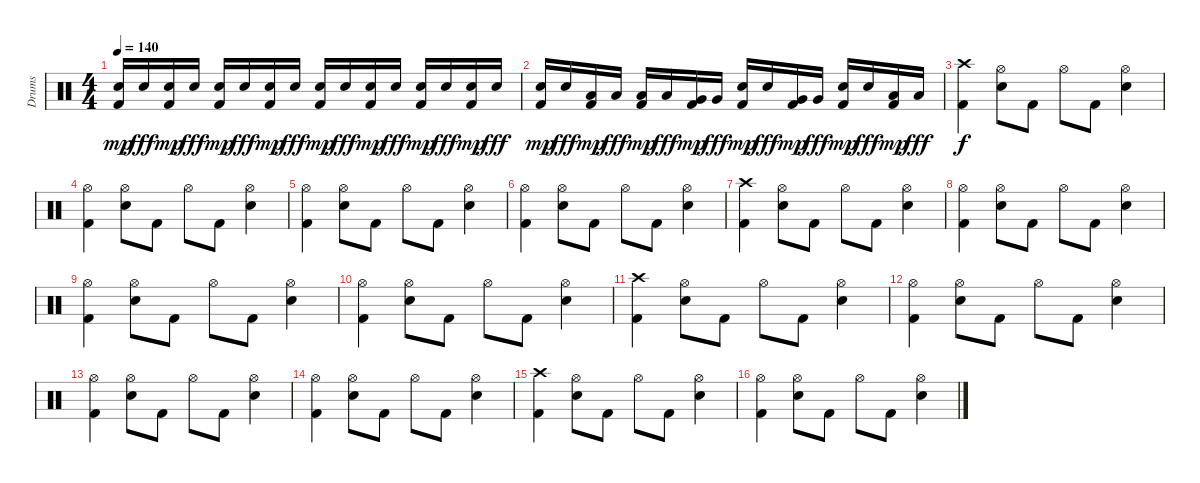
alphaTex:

\track ("Drums" "Drums") {instrument percussion}
\staff {score}
\articulation defaults
\ts (4 4)
\tempo 140
\clef neutral
\ks c
("Snare (hit) 2" "Kick (hit) 2").16{dy mp} "Snare (hit) 2".16{dy fff} ("Snare (hit) 2" "Kick (hit) 2").16{dy mp} "Snare (hit) 2".16{dy fff} ("Snare (hit) 2" "Kick (hit) 2").16{dy mp} "Snare (hit) 2".16{dy fff} ("Snare (hit) 2" "Kick (hit) 2").16{dy mp} "Snare (hit) 2".16{dy fff} ("Snare (hit) 2" "Kick (hit) 2").16{dy mp} "Snare (hit) 2".16{dy fff} ("Snare (hit) 2" "Kick (hit) 2").16{dy mp} "Snare (hit) 2".16{dy fff} ("Snare (hit) 2" "Kick (hit) 2").16{dy mp} "Snare (hit) 2".16{dy fff} ("Snare (hit) 2" "Kick (hit) 2").16{dy mp} "Snare (hit) 2".16{dy fff} |
("Snare (hit) 2" "Kick (hit) 2").16{dy mp} "Snare (hit) 2".16{dy fff} ("Low Tom (hit)" "Kick (hit) 2").16{dy mp} "Low Tom (hit)".16{dy fff} ("Low Tom (hit)" "Kick (hit) 2").16{dy mp} "Low Tom (hit)".16{dy fff} ("Very Low Tom (hit)" "Kick (hit) 2").16{dy mp} "Very Low Tom (hit)".16{dy fff} ("Snare (hit) 2" "Kick (hit) 2").16{dy mp} "Snare (hit) 2".16{dy fff} ("Very Low Tom (hit)" "Kick (hit) 2").16{dy mp} "Very Low Tom (hit)".16{dy fff} ("Snare (hit) 2" "Kick (hit) 2").16{dy mp} "Snare (hit) 2".16{dy fff} ("Low Floor Tom (hit)" "Kick (hit) 2").16{dy mp} "Low Floor Tom (hit)".16{dy fff} |
("Crash high (hit)" "Kick (hit) 2").4{dy f} ("Hi-Hat (open)" "Snare (hit) 2").8 "Kick (hit) 2".8 "Hi-Hat (open)".8 "Kick (hit) 2".8 ("Hi-Hat (open)" "Snare (hit) 2").4 |
("Hi-Hat (open)" "Kick (hit) 2").4 ("Hi-Hat (open)" "Snare (hit) 2").8 "Kick (hit) 2".8 "Hi-Hat (open)".8 "Kick (hit) 2".8 ("Hi-Hat (open)" "Snare (hit) 2").4 |
("Hi-Hat (open)" "Kick (hit) 2").4 ("Hi-Hat (open)" "Snare (hit) 2").8 "Kick (hit) 2".8 "Hi-Hat (open)".8 "Kick (hit) 2".8 ("Hi-Hat (open)" "Snare (hit) 2").4 |
("Hi-Hat (open)" "Kick (hit) 2").4 ("Hi-Hat (open)" "Snare (hit) 2").8 "Kick (hit) 2".8 "Hi-Hat (open)".8 "Kick (hit) 2".8 ("Hi-Hat (open)" "Snare (hit) 2").4 |
("Crash high (hit)" "Kick (hit) 2").4 ("Hi-Hat (open)" "Snare (hit) 2").8 "Kick (hit) 2".8 "Hi-Hat (open)".8 "Kick (hit) 2".8 ("Hi-Hat (open)" "Snare (hit) 2").4 |
("Hi-Hat (open)" "Kick (hit) 2").4 ("Hi-Hat (open)" "Snare (hit) 2").8 "Kick (hit) 2".8 "Hi-Hat (open)".8 "Kick (hit) 2".8 ("Hi-Hat (open)" "Snare (hit) 2").4 |
("Hi-Hat (open)" "Kick (hit) 2").4 ("Hi-Hat (open)" "Snare (hit) 2").8 "Kick (hit) 2".8 "Hi-Hat (open)".8 "Kick (hit) 2".8 ("Hi-Hat (open)" "Snare (hit) 2").4 |
("Hi-Hat (open)" "Kick (hit) 2").4 ("Hi-Hat (open)" "Snare (hit) 2").8 "Kick (hit) 2".8 "Hi-Hat (open)".8 "Kick (hit) 2".8 ("Hi-Hat (open)" "Snare (hit) 2").4 |
("Crash high (hit)" "Kick (hit) 2").4 ("Hi-Hat (open)" "Snare (hit) 2").8 "Kick (hit) 2".8 "Hi-Hat (open)".8 "Kick (hit) 2".8 ("Hi-Hat (open)" "Snare (hit) 2").4 |
("Hi-Hat (open)" "Kick (hit) 2").4 ("Hi-Hat (open)" "Snare (hit) 2").8 "Kick (hit) 2".8 "Hi-Hat (open)".8 "Kick (hit) 2".8 ("Hi-Hat (open)" "Snare (hit) 2").4 |
("Hi-Hat (open)" "Kick (hit) 2").4 ("Hi-Hat (open)" "Snare (hit) 2").8 "Kick (hit) 2".8 "Hi-Hat (open)".8 "Kick (hit) 2".8 ("Hi-Hat (open)" "Snare (hit) 2").4 |
("Hi-Hat (open)" "Kick (hit) 2").4 ("Hi-Hat (open)" "Snare (hit) 2").8 "Kick (hit) 2".8 "Hi-Hat (open)".8 "Kick (hit) 2".8 ("Hi-Hat (open)" "Snare (hit) 2").4 |
("Crash high (hit)" "Kick (hit) 2").4 ("Hi-Hat (open)" "Snare (hit) 2").8 "Kick (hit) 2".8 "Hi-Hat (open)".8 "Kick (hit) 2".8 ("Hi-Hat (open)" "Snare (hit) 2").4 |
("Hi-Hat (open)" "Kick (hit) 2").4 ("Hi-Hat (open)" "Snare (hit) 2").8 "Kick (hit) 2".8 "Hi-Hat (open)".8 "Kick (hit) 2".8 ("Hi-Hat (open)" "Snare (hit) 2").4
